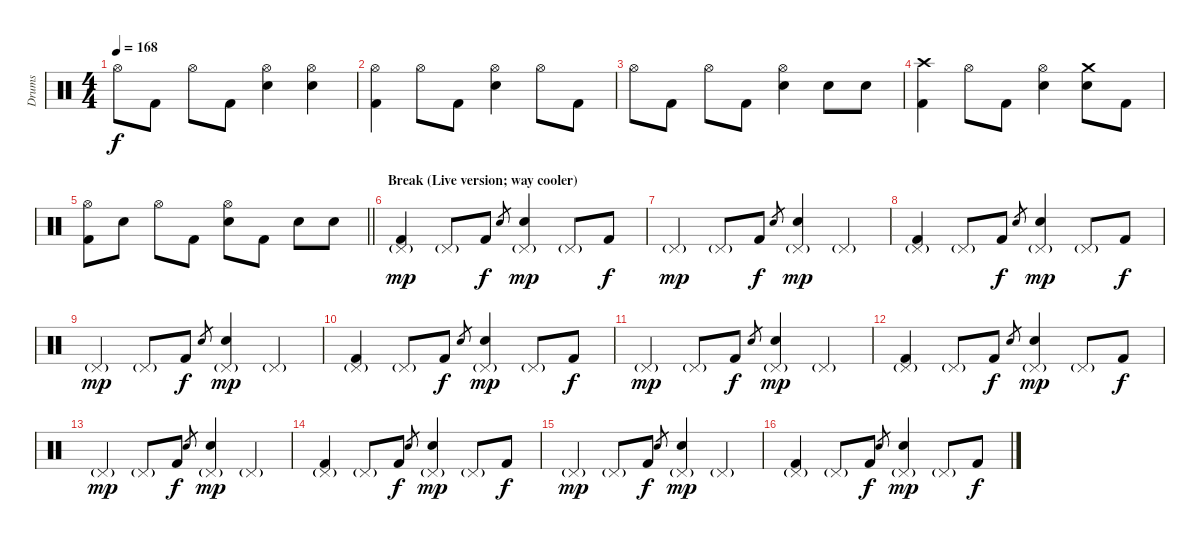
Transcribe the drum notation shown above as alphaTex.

\track ("Drums" "Drums") {instrument percussion}
\staff {score}
\articulation defaults
\ts (4 4)
\tempo 168
\clef neutral
\ks c "Hi-Hat (open)".8{dy f} "Kick (hit) 2".8 "Hi-Hat (open)".8 "Kick (hit) 2".8
("Hi-Hat (open)" "Snare (hit) 2").4 ("Hi-Hat (open)" "Snare (hit) 2").4 |
("Hi-Hat (open)" "Kick (hit) 2").4 "Hi-Hat (open)".8 "Kick (hit) 2".8 ("Hi-Hat (open)" "Snare (hit) 2").4 "Hi-Hat (open)".8 "Kick (hit) 2".8 |
"Hi-Hat (open)".8 "Kick (hit) 2".8 "Hi-Hat (open)".8 "Kick (hit) 2".8 ("Hi-Hat (open)" "Snare (hit) 2").4 "Snare (hit) 2".8 "Snare (hit) 2".8 |
("Crash high (hit)" "Kick (hit) 2").4 "Hi-Hat (open)".8 "Kick (hit) 2".8 ("Hi-Hat (open)" "Snare (hit) 2").4 ("Crash medium (hit)" "Snare (hit) 2").8 "Kick (hit) 2".8 |
\barLineRight lightlight
("Hi-Hat (open)" "Kick (hit) 2").8 "Snare (hit) 2".8 "Hi-Hat (open)".8 "Kick (hit) 2".8 ("Hi-Hat (open)" "Snare (hit) 2").8 "Kick (hit) 2".8 "Snare (hit) 2".8 "Snare (hit) 2".8 |
\section ("" "Break (Live version; way cooler)")
("Pedal Hi-Hat (hit)"{g} "Kick (hit) 2").4{dy mp} "Pedal Hi-Hat (hit)"{g}.8 "Kick (hit) 2".8{dy f} "Snare (hit) 2".8{gr} ("Pedal Hi-Hat (hit)"{g} "Snare (hit) 2").4{dy mp} "Pedal Hi-Hat (hit)"{g}.8 "Kick (hit) 2".8{dy f} |
"Pedal Hi-Hat (hit)"{g}.4{dy mp} "Pedal Hi-Hat (hit)"{g}.8 "Kick (hit) 2".8{dy f} "Snare (hit) 2".8{gr} ("Pedal Hi-Hat (hit)"{g} "Snare (hit) 2").4{dy mp} "Pedal Hi-Hat (hit)"{g}.4 |
("Pedal Hi-Hat (hit)"{g} "Kick (hit) 2").4 "Pedal Hi-Hat (hit)"{g}.8 "Kick (hit) 2".8{dy f} "Snare (hit) 2".8{gr} ("Pedal Hi-Hat (hit)"{g} "Snare (hit) 2").4{dy mp} "Pedal Hi-Hat (hit)"{g}.8 "Kick (hit) 2".8{dy f} |
"Pedal Hi-Hat (hit)"{g}.4{dy mp} "Pedal Hi-Hat (hit)"{g}.8 "Kick (hit) 2".8{dy f} "Snare (hit) 2".8{gr} ("Pedal Hi-Hat (hit)"{g} "Snare (hit) 2").4{dy mp} "Pedal Hi-Hat (hit)"{g}.4 |
("Pedal Hi-Hat (hit)"{g} "Kick (hit) 2").4 "Pedal Hi-Hat (hit)"{g}.8 "Kick (hit) 2".8{dy f} "Snare (hit) 2".8{gr} ("Pedal Hi-Hat (hit)"{g} "Snare (hit) 2").4{dy mp} "Pedal Hi-Hat (hit)"{g}.8 "Kick (hit) 2".8{dy f} |
"Pedal Hi-Hat (hit)"{g}.4{dy mp} "Pedal Hi-Hat (hit)"{g}.8 "Kick (hit) 2".8{dy f} "Snare (hit) 2".8{gr} ("Pedal Hi-Hat (hit)"{g} "Snare (hit) 2").4{dy mp} "Pedal Hi-Hat (hit)"{g}.4 |
("Pedal Hi-Hat (hit)"{g} "Kick (hit) 2").4 "Pedal Hi-Hat (hit)"{g}.8 "Kick (hit) 2".8{dy f} "Snare (hit) 2".8{gr} ("Pedal Hi-Hat (hit)"{g} "Snare (hit) 2").4{dy mp} "Pedal Hi-Hat (hit)"{g}.8 "Kick (hit) 2".8{dy f} |
"Pedal Hi-Hat (hit)"{g}.4{dy mp} "Pedal Hi-Hat (hit)"{g}.8 "Kick (hit) 2".8{dy f} "Snare (hit) 2".8{gr} ("Pedal Hi-Hat (hit)"{g} "Snare (hit) 2").4{dy mp} "Pedal Hi-Hat (hit)"{g}.4 |
("Pedal Hi-Hat (hit)"{g} "Kick (hit) 2").4 "Pedal Hi-Hat (hit)"{g}.8 "Kick (hit) 2".8{dy f} "Snare (hit) 2".8{gr} ("Pedal Hi-Hat (hit)"{g} "Snare (hit) 2").4{dy mp} "Pedal Hi-Hat (hit)"{g}.8 "Kick (hit) 2".8{dy f} |
"Pedal Hi-Hat (hit)"{g}.4{dy mp} "Pedal Hi-Hat (hit)"{g}.8 "Kick (hit) 2".8{dy f} "Snare (hit) 2".8{gr} ("Pedal Hi-Hat (hit)"{g} "Snare (hit) 2").4{dy mp} "Pedal Hi-Hat (hit)"{g}.4 |
("Pedal Hi-Hat (hit)"{g} "Kick (hit) 2").4 "Pedal Hi-Hat (hit)"{g}.8 "Kick (hit) 2".8{dy f} "Snare (hit) 2".8{gr} ("Pedal Hi-Hat (hit)"{g} "Snare (hit) 2").4{dy mp} "Pedal Hi-Hat (hit)"{g}.8 "Kick (hit) 2".8{dy f}
